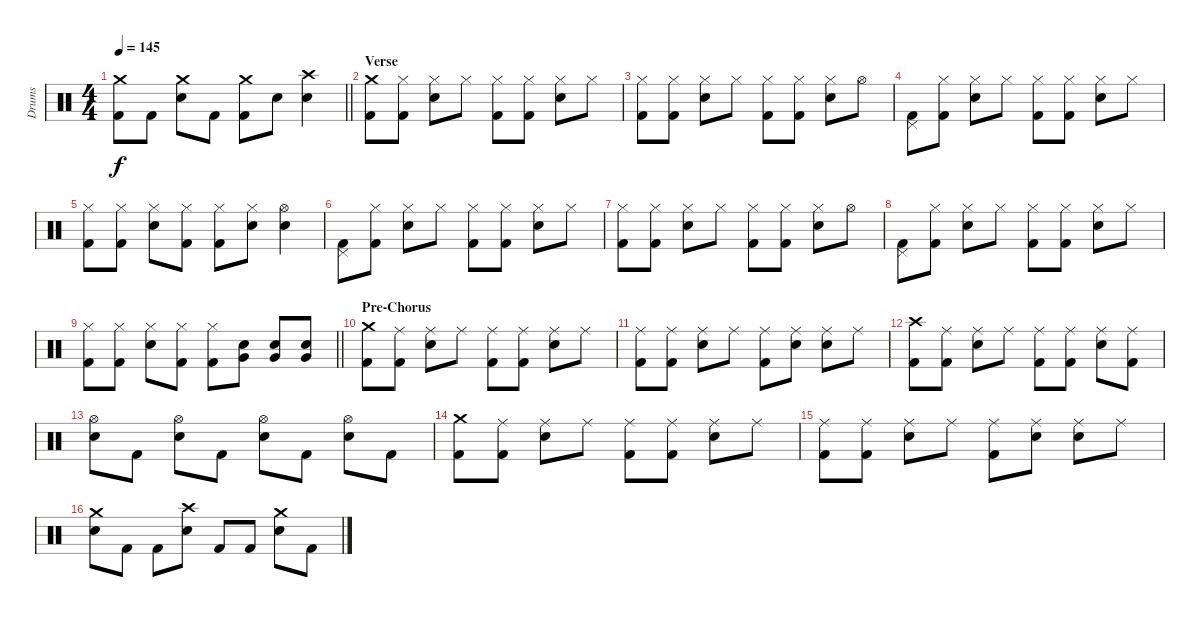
\track ("Drums" "Drums") {instrument percussion}
\staff {score}
\articulation defaults
\ts (4 4)
\tempo 145
\clef neutral
\barLineRight lightlight
\ks c
("Crash medium (hit)" "Kick (hit) 2").8{dy f} "Kick (hit) 2".8 ("Crash medium (hit)" "Electric Snare (hit)").8 "Kick (hit) 2".8 ("Crash medium (hit)" "Kick (hit) 2").8 "Electric Snare (hit)".8 ("Crash high (hit)" "Electric Snare (hit)").4 |
\section ("" "Verse")
("Crash medium (hit)" "Kick (hit) 2").8 ("Hi-Hat (closed)" "Kick (hit) 2").8 ("Hi-Hat (closed)" "Electric Snare (hit)").8 "Hi-Hat (closed)".8 ("Hi-Hat (closed)" "Kick (hit) 2").8 ("Hi-Hat (closed)" "Kick (hit) 2").8 ("Hi-Hat (closed)" "Electric Snare (hit)").8 "Hi-Hat (closed)".8 |
("Hi-Hat (closed)" "Kick (hit) 2").8 ("Hi-Hat (closed)" "Kick (hit) 2").8 ("Hi-Hat (closed)" "Electric Snare (hit)").8 "Hi-Hat (closed)".8 ("Hi-Hat (closed)" "Kick (hit) 2").8 ("Hi-Hat (closed)" "Kick (hit) 2").8 ("Hi-Hat (closed)" "Electric Snare (hit)").8 "Hi-Hat (open)".8 |
("Pedal Hi-Hat (hit)" "Kick (hit) 2").8 ("Hi-Hat (closed)" "Kick (hit) 2").8 ("Hi-Hat (closed)" "Electric Snare (hit)").8 "Hi-Hat (closed)".8 ("Hi-Hat (closed)" "Kick (hit) 2").8 ("Hi-Hat (closed)" "Kick (hit) 2").8 ("Hi-Hat (closed)" "Electric Snare (hit)").8 "Hi-Hat (closed)".8 |
("Hi-Hat (closed)" "Kick (hit) 2").8 ("Hi-Hat (closed)" "Kick (hit) 2").8 ("Hi-Hat (closed)" "Electric Snare (hit)").8 ("Hi-Hat (closed)" "Kick (hit) 2").8 ("Hi-Hat (closed)" "Kick (hit) 2").8 ("Hi-Hat (closed)" "Electric Snare (hit)").8 ("Hi-Hat (open)" "Electric Snare (hit)").4 |
("Pedal Hi-Hat (hit)" "Kick (hit) 2").8 ("Hi-Hat (closed)" "Kick (hit) 2").8 ("Hi-Hat (closed)" "Electric Snare (hit)").8 "Hi-Hat (closed)".8 ("Hi-Hat (closed)" "Kick (hit) 2").8 ("Hi-Hat (closed)" "Kick (hit) 2").8 ("Hi-Hat (closed)" "Electric Snare (hit)").8 "Hi-Hat (closed)".8 |
("Hi-Hat (closed)" "Kick (hit) 2").8 ("Hi-Hat (closed)" "Kick (hit) 2").8 ("Hi-Hat (closed)" "Electric Snare (hit)").8 "Hi-Hat (closed)".8 ("Hi-Hat (closed)" "Kick (hit) 2").8 ("Hi-Hat (closed)" "Kick (hit) 2").8 ("Hi-Hat (closed)" "Electric Snare (hit)").8 "Hi-Hat (open)".8 |
("Pedal Hi-Hat (hit)" "Kick (hit) 2").8 ("Hi-Hat (closed)" "Kick (hit) 2").8 ("Hi-Hat (closed)" "Electric Snare (hit)").8 "Hi-Hat (closed)".8 ("Hi-Hat (closed)" "Kick (hit) 2").8 ("Hi-Hat (closed)" "Kick (hit) 2").8 ("Hi-Hat (closed)" "Electric Snare (hit)").8 "Hi-Hat (closed)".8 |
\barLineRight lightlight
("Hi-Hat (closed)" "Kick (hit) 2").8 ("Hi-Hat (closed)" "Kick (hit) 2").8 ("Hi-Hat (closed)" "Electric Snare (hit)").8 ("Hi-Hat (closed)" "Kick (hit) 2").8 ("Hi-Hat (closed)" "Kick (hit) 2").8 ("Very Low Tom (hit)" "Electric Snare (hit)").8 ("Very Low Tom (hit)" "Electric Snare (hit)").8 ("Very Low Tom (hit)" "Electric Snare (hit)").8 |
\section ("" "Pre-Chorus")
("Crash medium (hit)" "Kick (hit) 2").8 ("Ride (middle)" "Kick (hit) 2").8 ("Ride (middle)" "Electric Snare (hit)").8 "Ride (middle)".8 ("Ride (middle)" "Kick (hit) 2").8 ("Ride (middle)" "Kick (hit) 2").8 ("Ride (middle)" "Electric Snare (hit)").8 "Ride (middle)".8 |
("Ride (middle)" "Kick (hit) 2").8 ("Ride (middle)" "Kick (hit) 2").8 ("Ride (middle)" "Electric Snare (hit)").8 "Ride (middle)".8 ("Ride (middle)" "Kick (hit) 2").8 ("Ride (middle)" "Electric Snare (hit)").8 ("Ride (middle)" "Electric Snare (hit)").8 "Ride (middle)".8 |
("Crash high (hit)" "Kick (hit) 2").8 ("Ride (middle)" "Kick (hit) 2").8 ("Ride (middle)" "Electric Snare (hit)").8 "Ride (middle)".8 ("Ride (middle)" "Kick (hit) 2").8 ("Ride (middle)" "Kick (hit) 2").8 ("Ride (middle)" "Electric Snare (hit)").8 ("Ride (middle)" "Kick (hit) 2").8 |
("Hi-Hat (open)" "Electric Snare (hit)").8 "Kick (hit) 2".8 ("Hi-Hat (open)" "Electric Snare (hit)").8 "Kick (hit) 2".8 ("Hi-Hat (open)" "Electric Snare (hit)").8 "Kick (hit) 2".8 ("Hi-Hat (open)" "Electric Snare (hit)").8 "Kick (hit) 2".8 |
("Crash medium (hit)" "Kick (hit) 2").8 ("Ride (middle)" "Kick (hit) 2").8 ("Ride (middle)" "Electric Snare (hit)").8 "Ride (middle)".8 ("Ride (middle)" "Kick (hit) 2").8 ("Ride (middle)" "Kick (hit) 2").8 ("Ride (middle)" "Electric Snare (hit)").8 "Ride (middle)".8 |
("Ride (middle)" "Kick (hit) 2").8 ("Ride (middle)" "Kick (hit) 2").8 ("Ride (middle)" "Electric Snare (hit)").8 "Ride (middle)".8 ("Ride (middle)" "Kick (hit) 2").8 ("Ride (middle)" "Electric Snare (hit)").8 ("Ride (middle)" "Electric Snare (hit)").8 "Ride (middle)".8 |
("Crash medium (hit)" "Electric Snare (hit)").8 "Kick (hit) 2".8 "Kick (hit) 2".8 ("Crash high (hit)" "Electric Snare (hit)").8 "Kick (hit) 2".8 "Kick (hit) 2".8 ("Crash medium (hit)" "Electric Snare (hit)").8 "Kick (hit) 2".8
